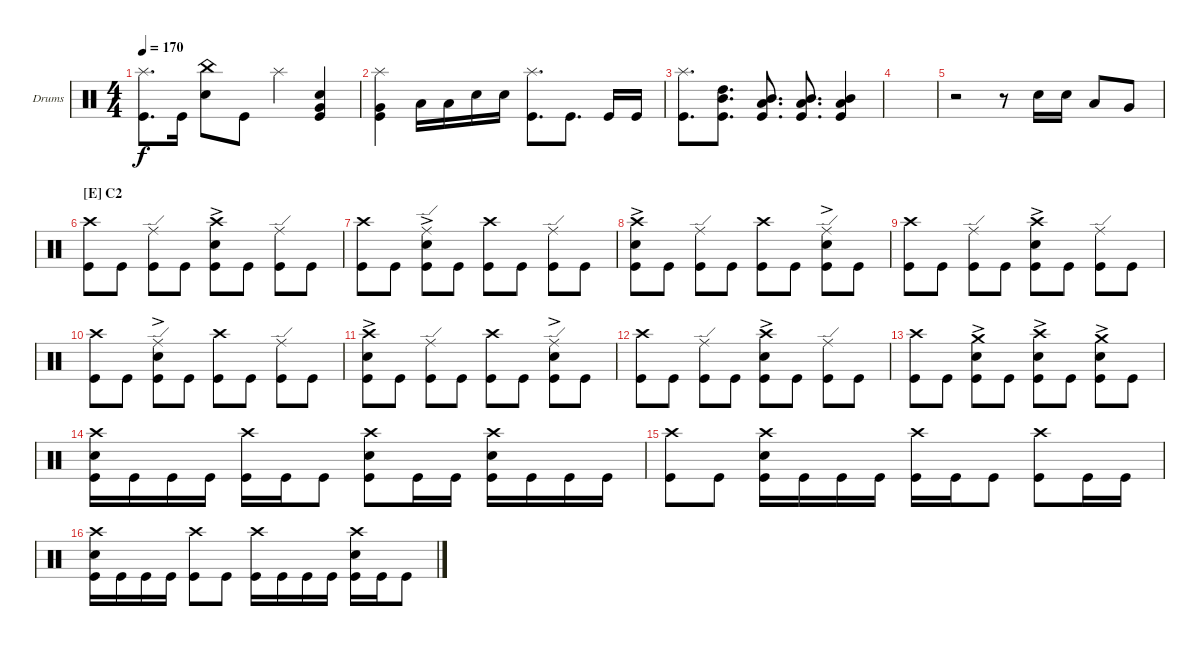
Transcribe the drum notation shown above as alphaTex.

\defaultSystemsLayout 4
\bracketExtendMode groupsimilarinstruments
\firstSystemTrackNameOrientation horizontal
\otherSystemsTrackNameOrientation horizontal
\track ("Drumkit" "Drums") {instrument percussion}
\staff {score}
\articulation defaults
\ts (4 4)
\tempo 170
\clef neutral
\ks c
("Splash (hit)" "Kick (hit)").8{d dy f} "Kick (hit)".16 ("Snare (hit) 2" "China (hit)").8 "Kick (hit)".8 "Splash (hit)".4 ("Snare (hit) 2" "Very Low Tom (hit)" "Kick (hit)").4 |
("Kick (hit)" "Very Low Tom (hit)" "Splash (hit)").4 "Low Tom (hit)".16 "Low Tom (hit)".16 "Snare (hit) 2".16 "Snare (hit) 2".16 ("Splash (hit)" "Kick (hit)").8{d} "Kick (hit)".8{d} "Kick (hit)".16 "Kick (hit)".16 |
("Splash (hit)" "Kick (hit)").8{d} ("Kick (hit)" "Mid Tom (hit)" "High Tom (hit)").8{d} ("Mid Tom (hit)" "Low Tom (hit)" "Kick (hit)").8{d} ("Mid Tom (hit)" "Low Tom (hit)" "Kick (hit)").8{d} ("Mid Tom (hit)" "Low Tom (hit)" "Kick (hit)").4 |
|
r.2 r.8 "Snare (hit) 2".16 "Snare (hit) 2".16 "Low Tom (hit)".8 "Very Low Tom (hit)".8 |
\section ("E" "C2")
("Kick (hit)" "Crash high (hit)").8 "Kick (hit)".8 ("Kick (hit)" "Ride (edge)").8 "Kick (hit)".8 ("Kick (hit)" "Snare (hit) 2"{ac} "Crash high (hit)").8 "Kick (hit)".8 ("Kick (hit)" "Ride (edge)").8 "Kick (hit)".8 |
("Kick (hit)" "Crash high (hit)").8 "Kick (hit)".8 ("Kick (hit)" "Snare (hit) 2"{ac} "Ride (edge)").8 "Kick (hit)".8 ("Kick (hit)" "Crash high (hit)").8 "Kick (hit)".8 ("Kick (hit)" "Ride (edge)").8 "Kick (hit)".8 |
("Kick (hit)" "Crash high (hit)" "Snare (hit) 2"{ac}).8 "Kick (hit)".8 ("Kick (hit)" "Ride (edge)").8 "Kick (hit)".8 ("Kick (hit)" "Crash high (hit)").8 "Kick (hit)".8 ("Kick (hit)" "Ride (edge)" "Snare (hit) 2"{ac}).8 "Kick (hit)".8 |
("Kick (hit)" "Crash high (hit)").8 "Kick (hit)".8 ("Kick (hit)" "Ride (edge)").8 "Kick (hit)".8 ("Kick (hit)" "Crash high (hit)" "Snare (hit) 2"{ac}).8 "Kick (hit)".8 ("Kick (hit)" "Ride (edge)").8 "Kick (hit)".8 |
("Kick (hit)" "Crash high (hit)").8 "Kick (hit)".8 ("Kick (hit)" "Ride (edge)" "Snare (hit) 2"{ac}).8 "Kick (hit)".8 ("Kick (hit)" "Crash high (hit)").8 "Kick (hit)".8 ("Kick (hit)" "Ride (edge)").8 "Kick (hit)".8 |
("Kick (hit)" "Crash high (hit)" "Snare (hit) 2"{ac}).8 "Kick (hit)".8 ("Kick (hit)" "Ride (edge)").8 "Kick (hit)".8 ("Kick (hit)" "Crash high (hit)").8 "Kick (hit)".8 ("Kick (hit)" "Ride (edge)" "Snare (hit) 2"{ac}).8 "Kick (hit)".8 |
("Kick (hit)" "Crash high (hit)").8 "Kick (hit)".8 ("Kick (hit)" "Ride (edge)").8 "Kick (hit)".8 ("Kick (hit)" "Crash high (hit)" "Snare (hit) 2"{ac}).8 "Kick (hit)".8 ("Kick (hit)" "Ride (edge)").8 "Kick (hit)".8 |
("Kick (hit)" "Crash high (hit)").8 "Kick (hit)".8 ("Kick (hit)" "Snare (hit) 2"{ac} "Crash medium (hit)").8 "Kick (hit)".8 ("Kick (hit)" "Crash high (hit)" "Snare (hit) 2"{ac}).8 "Kick (hit)".8 ("Kick (hit)" "Snare (hit) 2"{ac} "Crash medium (hit)").8 "Kick (hit)".8 |
("Kick (hit)" "Snare (hit) 2" "Crash high (hit)").16 "Kick (hit)".16 "Kick (hit)".16 "Kick (hit)".16 ("Kick (hit)" "Crash high (hit)").16 "Kick (hit)".16 "Kick (hit)".8 ("Kick (hit)" "Snare (hit) 2" "Crash high (hit)").8 "Kick (hit)".16 "Kick (hit)".16 ("Kick (hit)" "Snare (hit) 2" "Crash high (hit)").16 "Kick (hit)".16 "Kick (hit)".16 "Kick (hit)".16 |
("Kick (hit)" "Crash high (hit)").8 "Kick (hit)".8 ("Kick (hit)" "Snare (hit) 2" "Crash high (hit)").16 "Kick (hit)".16 "Kick (hit)".16 "Kick (hit)".16 ("Kick (hit)" "Crash high (hit)").16 "Kick (hit)".16 "Kick (hit)".8 ("Kick (hit)" "Crash high (hit)").8 "Kick (hit)".16 "Kick (hit)".16 |
("Kick (hit)" "Snare (hit) 2" "Crash high (hit)").16 "Kick (hit)".16 "Kick (hit)".16 "Kick (hit)".16 ("Kick (hit)" "Crash high (hit)").8 "Kick (hit)".8 ("Kick (hit)" "Crash high (hit)").16 "Kick (hit)".16 "Kick (hit)".16 "Kick (hit)".16 ("Kick (hit)" "Snare (hit) 2" "Crash high (hit)").16 "Kick (hit)".16 "Kick (hit)".8
